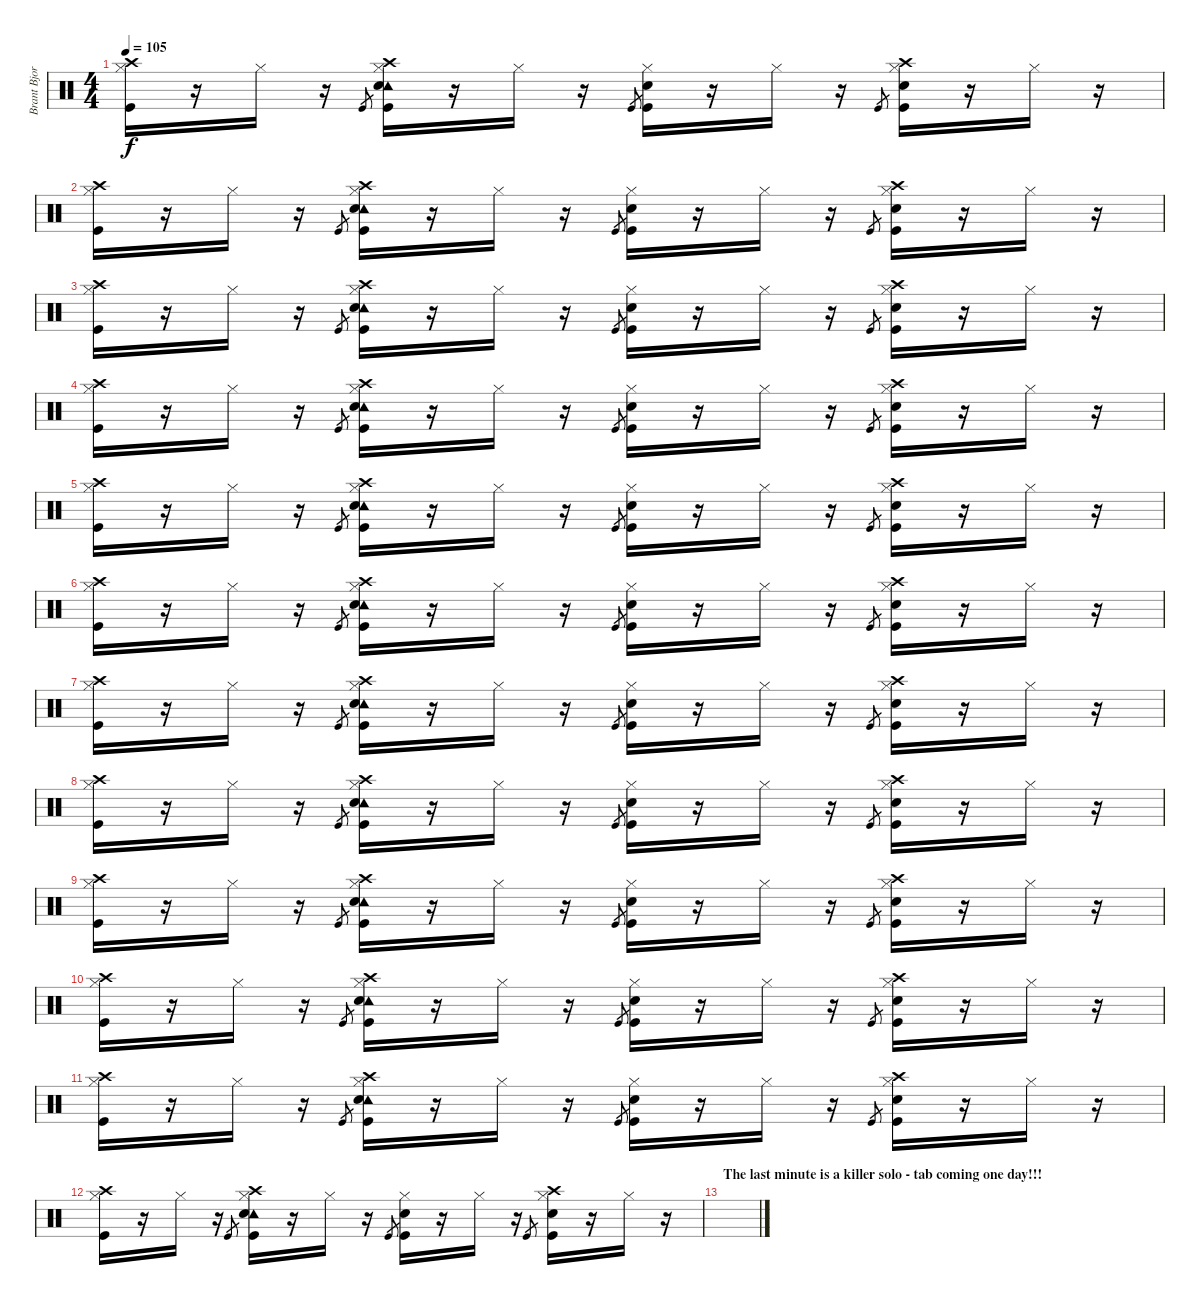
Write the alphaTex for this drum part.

\track ("Brant Bjork - Drums" "Brant Bjor") {instrument percussion}
\staff {score}
\articulation defaults
\ts (4 4)
\tempo 105
\clef neutral
\ks c
("Crash high (hit)" "Hi-Hat (closed)" "Kick (hit)").16{dy f} r.16 "Hi-Hat (closed)".16 r.16 "Kick (hit)".8{gr} ("Crash high (hit)" "Hi-Hat (closed)" "Tambourine (hit)" "Snare (hit) 2" "Kick (hit)").16 r.16 "Hi-Hat (closed)".16 r.16 "Kick (hit)".8{gr} ("Hi-Hat (closed)" "Snare (hit) 2" "Kick (hit)").16 r.16 "Hi-Hat (closed)".16 r.16 "Kick (hit)".8{gr} ("Crash high (hit)" "Hi-Hat (closed)" "Snare (hit) 2" "Kick (hit)").16 r.16 "Hi-Hat (closed)".16 r.16 |
("Crash high (hit)" "Hi-Hat (closed)" "Kick (hit)").16 r.16 "Hi-Hat (closed)".16 r.16 "Kick (hit)".8{gr} ("Crash high (hit)" "Hi-Hat (closed)" "Tambourine (hit)" "Snare (hit) 2" "Kick (hit)").16 r.16 "Hi-Hat (closed)".16 r.16 "Kick (hit)".8{gr} ("Hi-Hat (closed)" "Snare (hit) 2" "Kick (hit)").16 r.16 "Hi-Hat (closed)".16 r.16 "Kick (hit)".8{gr} ("Crash high (hit)" "Hi-Hat (closed)" "Snare (hit) 2" "Kick (hit)").16 r.16 "Hi-Hat (closed)".16 r.16 |
("Crash high (hit)" "Hi-Hat (closed)" "Kick (hit)").16 r.16 "Hi-Hat (closed)".16 r.16 "Kick (hit)".8{gr} ("Crash high (hit)" "Hi-Hat (closed)" "Tambourine (hit)" "Snare (hit) 2" "Kick (hit)").16 r.16 "Hi-Hat (closed)".16 r.16 "Kick (hit)".8{gr} ("Hi-Hat (closed)" "Snare (hit) 2" "Kick (hit)").16 r.16 "Hi-Hat (closed)".16 r.16 "Kick (hit)".8{gr} ("Crash high (hit)" "Hi-Hat (closed)" "Snare (hit) 2" "Kick (hit)").16 r.16 "Hi-Hat (closed)".16 r.16 |
("Crash high (hit)" "Hi-Hat (closed)" "Kick (hit)").16 r.16 "Hi-Hat (closed)".16 r.16 "Kick (hit)".8{gr} ("Crash high (hit)" "Hi-Hat (closed)" "Tambourine (hit)" "Snare (hit) 2" "Kick (hit)").16 r.16 "Hi-Hat (closed)".16 r.16 "Kick (hit)".8{gr} ("Hi-Hat (closed)" "Snare (hit) 2" "Kick (hit)").16 r.16 "Hi-Hat (closed)".16 r.16 "Kick (hit)".8{gr} ("Crash high (hit)" "Hi-Hat (closed)" "Snare (hit) 2" "Kick (hit)").16 r.16 "Hi-Hat (closed)".16 r.16 |
("Crash high (hit)" "Hi-Hat (closed)" "Kick (hit)").16 r.16 "Hi-Hat (closed)".16 r.16 "Kick (hit)".8{gr} ("Crash high (hit)" "Hi-Hat (closed)" "Tambourine (hit)" "Snare (hit) 2" "Kick (hit)").16 r.16 "Hi-Hat (closed)".16 r.16 "Kick (hit)".8{gr} ("Hi-Hat (closed)" "Snare (hit) 2" "Kick (hit)").16 r.16 "Hi-Hat (closed)".16 r.16 "Kick (hit)".8{gr} ("Crash high (hit)" "Hi-Hat (closed)" "Snare (hit) 2" "Kick (hit)").16 r.16 "Hi-Hat (closed)".16 r.16 |
("Crash high (hit)" "Hi-Hat (closed)" "Kick (hit)").16 r.16 "Hi-Hat (closed)".16 r.16 "Kick (hit)".8{gr} ("Crash high (hit)" "Hi-Hat (closed)" "Tambourine (hit)" "Snare (hit) 2" "Kick (hit)").16 r.16 "Hi-Hat (closed)".16 r.16 "Kick (hit)".8{gr} ("Hi-Hat (closed)" "Snare (hit) 2" "Kick (hit)").16 r.16 "Hi-Hat (closed)".16 r.16 "Kick (hit)".8{gr} ("Crash high (hit)" "Hi-Hat (closed)" "Snare (hit) 2" "Kick (hit)").16 r.16 "Hi-Hat (closed)".16 r.16 |
("Crash high (hit)" "Hi-Hat (closed)" "Kick (hit)").16 r.16 "Hi-Hat (closed)".16 r.16 "Kick (hit)".8{gr} ("Crash high (hit)" "Hi-Hat (closed)" "Tambourine (hit)" "Snare (hit) 2" "Kick (hit)").16 r.16 "Hi-Hat (closed)".16 r.16 "Kick (hit)".8{gr} ("Hi-Hat (closed)" "Snare (hit) 2" "Kick (hit)").16 r.16 "Hi-Hat (closed)".16 r.16 "Kick (hit)".8{gr} ("Crash high (hit)" "Hi-Hat (closed)" "Snare (hit) 2" "Kick (hit)").16 r.16 "Hi-Hat (closed)".16 r.16 |
("Crash high (hit)" "Hi-Hat (closed)" "Kick (hit)").16 r.16 "Hi-Hat (closed)".16 r.16 "Kick (hit)".8{gr} ("Crash high (hit)" "Hi-Hat (closed)" "Tambourine (hit)" "Snare (hit) 2" "Kick (hit)").16 r.16 "Hi-Hat (closed)".16 r.16 "Kick (hit)".8{gr} ("Hi-Hat (closed)" "Snare (hit) 2" "Kick (hit)").16 r.16 "Hi-Hat (closed)".16 r.16 "Kick (hit)".8{gr} ("Crash high (hit)" "Hi-Hat (closed)" "Snare (hit) 2" "Kick (hit)").16 r.16 "Hi-Hat (closed)".16 r.16 |
("Crash high (hit)" "Hi-Hat (closed)" "Kick (hit)").16 r.16 "Hi-Hat (closed)".16 r.16 "Kick (hit)".8{gr} ("Crash high (hit)" "Hi-Hat (closed)" "Tambourine (hit)" "Snare (hit) 2" "Kick (hit)").16 r.16 "Hi-Hat (closed)".16 r.16 "Kick (hit)".8{gr} ("Hi-Hat (closed)" "Snare (hit) 2" "Kick (hit)").16 r.16 "Hi-Hat (closed)".16 r.16 "Kick (hit)".8{gr} ("Crash high (hit)" "Hi-Hat (closed)" "Snare (hit) 2" "Kick (hit)").16 r.16 "Hi-Hat (closed)".16 r.16 |
("Crash high (hit)" "Hi-Hat (closed)" "Kick (hit)").16 r.16 "Hi-Hat (closed)".16 r.16 "Kick (hit)".8{gr} ("Crash high (hit)" "Hi-Hat (closed)" "Tambourine (hit)" "Snare (hit) 2" "Kick (hit)").16 r.16 "Hi-Hat (closed)".16 r.16 "Kick (hit)".8{gr} ("Hi-Hat (closed)" "Snare (hit) 2" "Kick (hit)").16 r.16 "Hi-Hat (closed)".16 r.16 "Kick (hit)".8{gr} ("Crash high (hit)" "Hi-Hat (closed)" "Snare (hit) 2" "Kick (hit)").16 r.16 "Hi-Hat (closed)".16 r.16 |
("Crash high (hit)" "Hi-Hat (closed)" "Kick (hit)").16 r.16 "Hi-Hat (closed)".16 r.16 "Kick (hit)".8{gr} ("Crash high (hit)" "Hi-Hat (closed)" "Tambourine (hit)" "Snare (hit) 2" "Kick (hit)").16 r.16 "Hi-Hat (closed)".16 r.16 "Kick (hit)".8{gr} ("Hi-Hat (closed)" "Snare (hit) 2" "Kick (hit)").16 r.16 "Hi-Hat (closed)".16 r.16 "Kick (hit)".8{gr} ("Crash high (hit)" "Hi-Hat (closed)" "Snare (hit) 2" "Kick (hit)").16 r.16 "Hi-Hat (closed)".16 r.16 |
("Crash high (hit)" "Hi-Hat (closed)" "Kick (hit)").16 r.16 "Hi-Hat (closed)".16 r.16 "Kick (hit)".8{gr} ("Crash high (hit)" "Hi-Hat (closed)" "Tambourine (hit)" "Snare (hit) 2" "Kick (hit)").16 r.16 "Hi-Hat (closed)".16 r.16 "Kick (hit)".8{gr} ("Hi-Hat (closed)" "Snare (hit) 2" "Kick (hit)").16 r.16 "Hi-Hat (closed)".16 r.16 "Kick (hit)".8{gr} ("Crash high (hit)" "Hi-Hat (closed)" "Snare (hit) 2" "Kick (hit)").16 r.16 "Hi-Hat (closed)".16 r.16 |
\section ("" "The last minute is a killer solo - tab coming one day!!!")
